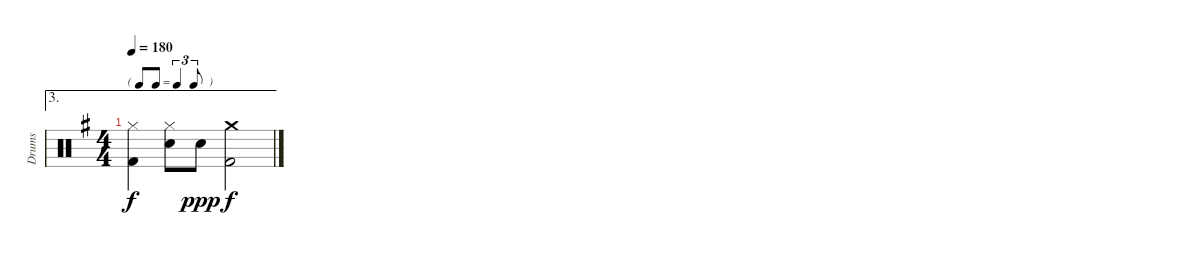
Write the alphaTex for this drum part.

\track ("Drums" "Drums") {instrument percussion}
\staff {score}
\articulation defaults
\ae 3
\ts (4 4)
\tf triplet8th
\tempo 180
\clef neutral
\ks g
("Hi-Hat (closed)" "Kick (hit) 2").4{dy f} ("Hi-Hat (closed)" "Snare (hit) 2").8 "Snare (hit) 2".8{dy ppp} ("Crash medium (hit)" "Kick (hit) 2").2{dy f}
